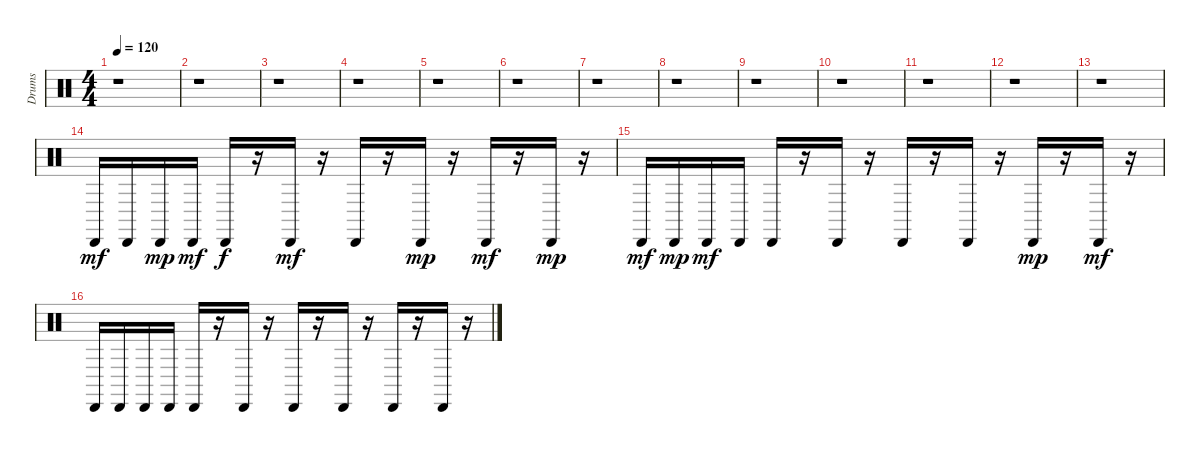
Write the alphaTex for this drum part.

\track ("Drums" "Drums") {instrument percussion}
\staff {score}
\articulation defaults
\ts (4 4)
\tempo 120
\clef neutral
\ks c
r.1{dy mf} |
r.1 |
r.1 |
r.1 |
r.1 |
r.1 |
r.1 |
r.1 |
r.1 |
r.1 |
r.1 |
r.1 |
r.1 |
"Cabasa (hit)".16 "Cabasa (hit)".16 "Cabasa (hit)".16{dy mp} "Cabasa (hit)".16{dy mf} "Cabasa (hit)".16{dy f} r.16 "Cabasa (hit)".16{dy mf} r.16 "Cabasa (hit)".16 r.16 "Cabasa (hit)".16{dy mp} r.16 "Cabasa (hit)".16{dy mf} r.16 "Cabasa (hit)".16{dy mp} r.16 |
"Cabasa (hit)".16{dy mf} "Cabasa (hit)".16{dy mp} "Cabasa (hit)".16{dy mf} "Cabasa (hit)".16 "Cabasa (hit)".16 r.16 "Cabasa (hit)".16 r.16 "Cabasa (hit)".16 r.16 "Cabasa (hit)".16 r.16 "Cabasa (hit)".16{dy mp} r.16 "Cabasa (hit)".16{dy mf} r.16 |
"Cabasa (hit)".16 "Cabasa (hit)".16 "Cabasa (hit)".16 "Cabasa (hit)".16 "Cabasa (hit)".16 r.16 "Cabasa (hit)".16 r.16 "Cabasa (hit)".16 r.16 "Cabasa (hit)".16 r.16 "Cabasa (hit)".16 r.16 "Cabasa (hit)".16 r.16
